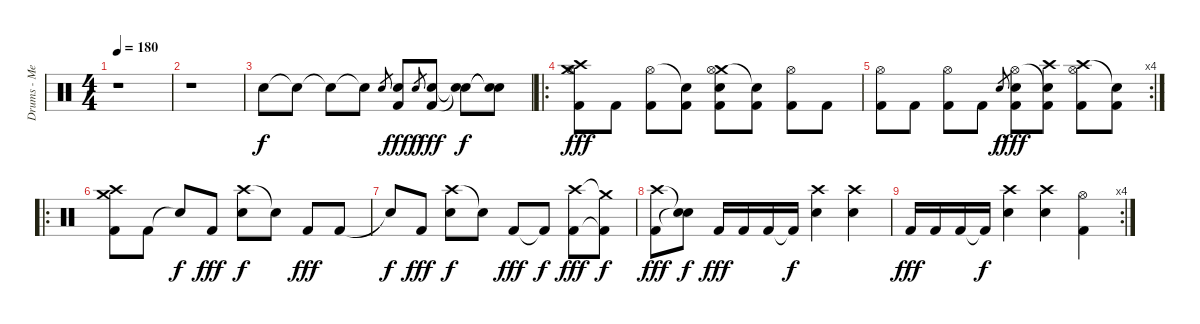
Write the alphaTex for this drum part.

\track ("Drums - Mercedes" "Drums - Me") {instrument percussion}
\staff {score}
\articulation defaults
\ts (4 4)
\tempo 180
\clef neutral
\ks c
r.1{dy f} |
r.1 |
"Snare (hit)".8 "Snare (hit)"{t}.8 "Snare (hit)"{t}.8 "Snare (hit)"{t}.8 "Electric Snare (hit)".8{gr} ("Electric Snare (hit)" "Kick (hit) 2").8{dy fff} "Electric Snare (hit)".8{gr dy f} ("Electric Snare (hit)" "Kick (hit) 2").8{dy fff} ("Snare (hit)"{t} "Snare (hit)"{t}).8{dy f} ("Snare (hit)"{t} "Snare (hit)"{t}).8 |
\ro
("Crash high (hit)" "Crash medium (hit)" "Hi-Hat (open)" "Kick (hit) 2").8{dy fff} "Kick (hit) 2".8 ("Hi-Hat (open)" "Kick (hit) 2").8 ("Snare (hit)"{t} "Kick (hit) 2").8 ("Crash medium (hit)" "Electric Snare (hit)" "Hi-Hat (open)" "Kick (hit) 2").8 ("Snare (hit)"{t} "Kick (hit) 2").8 ("Hi-Hat (open)" "Kick (hit) 2").8 "Kick (hit) 2".8 |
\rc 4
("Hi-Hat (open)" "Kick (hit) 2").8 "Kick (hit) 2".8 ("Hi-Hat (open)" "Kick (hit) 2").8 "Kick (hit) 2".8 "Electric Snare (hit)".8{gr dy f} ("Electric Snare (hit)" "Hi-Hat (open)" "Kick (hit) 2").8{dy fff} ("Crash high (hit)" "Snare (hit)"{t} "Kick (hit) 2").8 ("Crash high (hit)" "Hi-Hat (open)" "Kick (hit) 2").8 ("Snare (hit)"{t} "Kick (hit) 2").8 |
\ro
("Crash high (hit)" "Crash medium (hit)" "Kick (hit) 2").8 "Kick (hit) 2".8 "Snare (hit)"{t}.8{dy f} "Kick (hit) 2".8{dy fff} ("Crash high (hit)" "Electric Snare (hit)").8{dy f} "Snare (hit)"{t}.8 "Kick (hit) 2".8{dy fff} "Kick (hit) 2".8 |
"Snare (hit)"{t}.8{dy f} "Kick (hit) 2".8{dy fff} ("Crash high (hit)" "Electric Snare (hit)").8{dy f} "Snare (hit)"{t}.8 "Kick (hit) 2".8{dy fff} "Kick (hit) 2"{t}.8{dy f} ("Crash high (hit)" "Kick (hit) 2").8{dy fff} ("Crash medium (hit)"{t} "Kick (hit) 2"{t}).8{dy f} |
("Crash high (hit)" "Kick (hit) 2").8{dy fff} ("Snare (hit)"{t} "Snare (hit)"{t}).8{dy f} "Kick (hit) 2".16{dy fff} "Kick (hit) 2".16 "Kick (hit) 2".16 "Kick (hit) 2"{t}.16{dy f} ("Crash high (hit)" "Electric Snare (hit)").4 ("Crash high (hit)" "Electric Snare (hit)").4 |
\rc 4 "Kick (hit) 2".16{dy fff} "Kick (hit) 2".16 "Kick (hit) 2".16 "Kick (hit) 2"{t}.16{dy f}
("Crash high (hit)" "Electric Snare (hit)").4 ("Crash high (hit)" "Electric Snare (hit)").4 ("Hi-Hat (open)" "Kick (hit) 2").4
